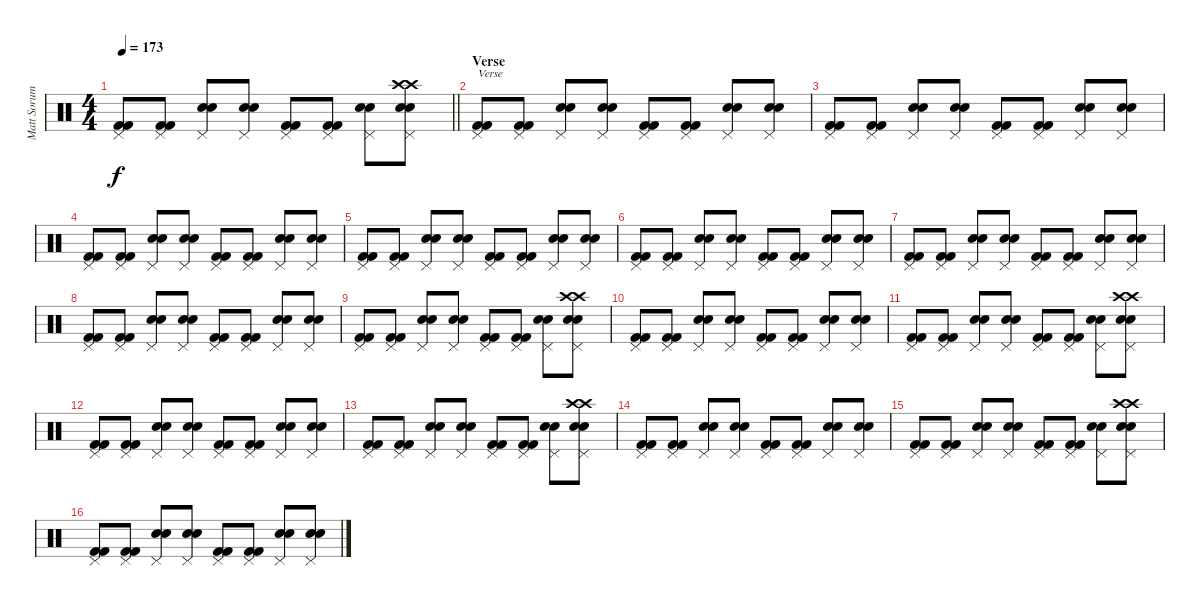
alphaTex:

\track ("Matt Sorum" "Matt Sorum") {instrument percussion}
\staff {score}
\articulation defaults
\ts (4 4)
\tempo 173
\clef neutral
\barLineRight lightlight
\ks c
("Pedal Hi-Hat (hit)" "Kick (hit) 2" "Kick (hit) 2").8{dy f} ("Pedal Hi-Hat (hit)" "Kick (hit) 2" "Kick (hit) 2").8 ("Pedal Hi-Hat (hit)" "Snare (hit) 2" "Snare (hit) 2").8 ("Pedal Hi-Hat (hit)" "Snare (hit) 2" "Snare (hit) 2").8 ("Pedal Hi-Hat (hit)" "Kick (hit) 2" "Kick (hit) 2").8 ("Pedal Hi-Hat (hit)" "Kick (hit) 2" "Kick (hit) 2").8 ("Pedal Hi-Hat (hit)" "Snare (hit) 2" "Snare (hit) 2").8 ("Crash high (hit)" "Crash high (hit)" "Pedal Hi-Hat (hit)" "Snare (hit) 2" "Snare (hit) 2").8 |
\section ("" "Verse")
("Pedal Hi-Hat (hit)" "Kick (hit) 2" "Kick (hit) 2").8{txt "Verse"} ("Pedal Hi-Hat (hit)" "Kick (hit) 2" "Kick (hit) 2").8 ("Pedal Hi-Hat (hit)" "Snare (hit) 2" "Snare (hit) 2").8 ("Pedal Hi-Hat (hit)" "Snare (hit) 2" "Snare (hit) 2").8 ("Pedal Hi-Hat (hit)" "Kick (hit) 2" "Kick (hit) 2").8 ("Pedal Hi-Hat (hit)" "Kick (hit) 2" "Kick (hit) 2").8 ("Pedal Hi-Hat (hit)" "Snare (hit) 2" "Snare (hit) 2").8 ("Pedal Hi-Hat (hit)" "Snare (hit) 2" "Snare (hit) 2").8 |
("Pedal Hi-Hat (hit)" "Kick (hit) 2" "Kick (hit) 2").8 ("Pedal Hi-Hat (hit)" "Kick (hit) 2" "Kick (hit) 2").8 ("Pedal Hi-Hat (hit)" "Snare (hit) 2" "Snare (hit) 2").8 ("Pedal Hi-Hat (hit)" "Snare (hit) 2" "Snare (hit) 2").8 ("Pedal Hi-Hat (hit)" "Kick (hit) 2" "Kick (hit) 2").8 ("Pedal Hi-Hat (hit)" "Kick (hit) 2" "Kick (hit) 2").8 ("Pedal Hi-Hat (hit)" "Snare (hit) 2" "Snare (hit) 2").8 ("Pedal Hi-Hat (hit)" "Snare (hit) 2" "Snare (hit) 2").8 |
("Pedal Hi-Hat (hit)" "Kick (hit) 2" "Kick (hit) 2").8 ("Pedal Hi-Hat (hit)" "Kick (hit) 2" "Kick (hit) 2").8 ("Pedal Hi-Hat (hit)" "Snare (hit) 2" "Snare (hit) 2").8 ("Pedal Hi-Hat (hit)" "Snare (hit) 2" "Snare (hit) 2").8 ("Pedal Hi-Hat (hit)" "Kick (hit) 2" "Kick (hit) 2").8 ("Pedal Hi-Hat (hit)" "Kick (hit) 2" "Kick (hit) 2").8 ("Pedal Hi-Hat (hit)" "Snare (hit) 2" "Snare (hit) 2").8 ("Pedal Hi-Hat (hit)" "Snare (hit) 2" "Snare (hit) 2").8 |
("Pedal Hi-Hat (hit)" "Kick (hit) 2" "Kick (hit) 2").8 ("Pedal Hi-Hat (hit)" "Kick (hit) 2" "Kick (hit) 2").8 ("Pedal Hi-Hat (hit)" "Snare (hit) 2" "Snare (hit) 2").8 ("Pedal Hi-Hat (hit)" "Snare (hit) 2" "Snare (hit) 2").8 ("Pedal Hi-Hat (hit)" "Kick (hit) 2" "Kick (hit) 2").8 ("Pedal Hi-Hat (hit)" "Kick (hit) 2" "Kick (hit) 2").8 ("Pedal Hi-Hat (hit)" "Snare (hit) 2" "Snare (hit) 2").8 ("Pedal Hi-Hat (hit)" "Snare (hit) 2" "Snare (hit) 2").8 |
("Pedal Hi-Hat (hit)" "Kick (hit) 2" "Kick (hit) 2").8 ("Pedal Hi-Hat (hit)" "Kick (hit) 2" "Kick (hit) 2").8 ("Pedal Hi-Hat (hit)" "Snare (hit) 2" "Snare (hit) 2").8 ("Pedal Hi-Hat (hit)" "Snare (hit) 2" "Snare (hit) 2").8 ("Pedal Hi-Hat (hit)" "Kick (hit) 2" "Kick (hit) 2").8 ("Pedal Hi-Hat (hit)" "Kick (hit) 2" "Kick (hit) 2").8 ("Pedal Hi-Hat (hit)" "Snare (hit) 2" "Snare (hit) 2").8 ("Pedal Hi-Hat (hit)" "Snare (hit) 2" "Snare (hit) 2").8 |
("Pedal Hi-Hat (hit)" "Kick (hit) 2" "Kick (hit) 2").8 ("Pedal Hi-Hat (hit)" "Kick (hit) 2" "Kick (hit) 2").8 ("Pedal Hi-Hat (hit)" "Snare (hit) 2" "Snare (hit) 2").8 ("Pedal Hi-Hat (hit)" "Snare (hit) 2" "Snare (hit) 2").8 ("Pedal Hi-Hat (hit)" "Kick (hit) 2" "Kick (hit) 2").8 ("Pedal Hi-Hat (hit)" "Kick (hit) 2" "Kick (hit) 2").8 ("Pedal Hi-Hat (hit)" "Snare (hit) 2" "Snare (hit) 2").8 ("Pedal Hi-Hat (hit)" "Snare (hit) 2" "Snare (hit) 2").8 |
("Pedal Hi-Hat (hit)" "Kick (hit) 2" "Kick (hit) 2").8 ("Pedal Hi-Hat (hit)" "Kick (hit) 2" "Kick (hit) 2").8 ("Pedal Hi-Hat (hit)" "Snare (hit) 2" "Snare (hit) 2").8 ("Pedal Hi-Hat (hit)" "Snare (hit) 2" "Snare (hit) 2").8 ("Pedal Hi-Hat (hit)" "Kick (hit) 2" "Kick (hit) 2").8 ("Pedal Hi-Hat (hit)" "Kick (hit) 2" "Kick (hit) 2").8 ("Pedal Hi-Hat (hit)" "Snare (hit) 2" "Snare (hit) 2").8 ("Pedal Hi-Hat (hit)" "Snare (hit) 2" "Snare (hit) 2").8 |
("Pedal Hi-Hat (hit)" "Kick (hit) 2" "Kick (hit) 2").8 ("Pedal Hi-Hat (hit)" "Kick (hit) 2" "Kick (hit) 2").8 ("Pedal Hi-Hat (hit)" "Snare (hit) 2" "Snare (hit) 2").8 ("Pedal Hi-Hat (hit)" "Snare (hit) 2" "Snare (hit) 2").8 ("Pedal Hi-Hat (hit)" "Kick (hit) 2" "Kick (hit) 2").8 ("Pedal Hi-Hat (hit)" "Kick (hit) 2" "Kick (hit) 2").8 ("Pedal Hi-Hat (hit)" "Snare (hit) 2" "Snare (hit) 2").8 ("Crash high (hit)" "Crash high (hit)" "Pedal Hi-Hat (hit)" "Snare (hit) 2" "Snare (hit) 2").8 |
("Pedal Hi-Hat (hit)" "Kick (hit) 2" "Kick (hit) 2").8 ("Pedal Hi-Hat (hit)" "Kick (hit) 2" "Kick (hit) 2").8 ("Pedal Hi-Hat (hit)" "Snare (hit) 2" "Snare (hit) 2").8 ("Pedal Hi-Hat (hit)" "Snare (hit) 2" "Snare (hit) 2").8 ("Pedal Hi-Hat (hit)" "Kick (hit) 2" "Kick (hit) 2").8 ("Pedal Hi-Hat (hit)" "Kick (hit) 2" "Kick (hit) 2").8 ("Pedal Hi-Hat (hit)" "Snare (hit) 2" "Snare (hit) 2").8 ("Pedal Hi-Hat (hit)" "Snare (hit) 2" "Snare (hit) 2").8 |
("Pedal Hi-Hat (hit)" "Kick (hit) 2" "Kick (hit) 2").8 ("Pedal Hi-Hat (hit)" "Kick (hit) 2" "Kick (hit) 2").8 ("Pedal Hi-Hat (hit)" "Snare (hit) 2" "Snare (hit) 2").8 ("Pedal Hi-Hat (hit)" "Snare (hit) 2" "Snare (hit) 2").8 ("Pedal Hi-Hat (hit)" "Kick (hit) 2" "Kick (hit) 2").8 ("Pedal Hi-Hat (hit)" "Kick (hit) 2" "Kick (hit) 2").8 ("Pedal Hi-Hat (hit)" "Snare (hit) 2" "Snare (hit) 2").8 ("Crash high (hit)" "Crash high (hit)" "Pedal Hi-Hat (hit)" "Snare (hit) 2" "Snare (hit) 2").8 |
("Pedal Hi-Hat (hit)" "Kick (hit) 2" "Kick (hit) 2").8 ("Pedal Hi-Hat (hit)" "Kick (hit) 2" "Kick (hit) 2").8 ("Pedal Hi-Hat (hit)" "Snare (hit) 2" "Snare (hit) 2").8 ("Pedal Hi-Hat (hit)" "Snare (hit) 2" "Snare (hit) 2").8 ("Pedal Hi-Hat (hit)" "Kick (hit) 2" "Kick (hit) 2").8 ("Pedal Hi-Hat (hit)" "Kick (hit) 2" "Kick (hit) 2").8 ("Pedal Hi-Hat (hit)" "Snare (hit) 2" "Snare (hit) 2").8 ("Pedal Hi-Hat (hit)" "Snare (hit) 2" "Snare (hit) 2").8 |
("Pedal Hi-Hat (hit)" "Kick (hit) 2" "Kick (hit) 2").8 ("Pedal Hi-Hat (hit)" "Kick (hit) 2" "Kick (hit) 2").8 ("Pedal Hi-Hat (hit)" "Snare (hit) 2" "Snare (hit) 2").8 ("Pedal Hi-Hat (hit)" "Snare (hit) 2" "Snare (hit) 2").8 ("Pedal Hi-Hat (hit)" "Kick (hit) 2" "Kick (hit) 2").8 ("Pedal Hi-Hat (hit)" "Kick (hit) 2" "Kick (hit) 2").8 ("Pedal Hi-Hat (hit)" "Snare (hit) 2" "Snare (hit) 2").8 ("Crash high (hit)" "Crash high (hit)" "Pedal Hi-Hat (hit)" "Snare (hit) 2" "Snare (hit) 2").8 |
("Pedal Hi-Hat (hit)" "Kick (hit) 2" "Kick (hit) 2").8 ("Pedal Hi-Hat (hit)" "Kick (hit) 2" "Kick (hit) 2").8 ("Pedal Hi-Hat (hit)" "Snare (hit) 2" "Snare (hit) 2").8 ("Pedal Hi-Hat (hit)" "Snare (hit) 2" "Snare (hit) 2").8 ("Pedal Hi-Hat (hit)" "Kick (hit) 2" "Kick (hit) 2").8 ("Pedal Hi-Hat (hit)" "Kick (hit) 2" "Kick (hit) 2").8 ("Pedal Hi-Hat (hit)" "Snare (hit) 2" "Snare (hit) 2").8 ("Pedal Hi-Hat (hit)" "Snare (hit) 2" "Snare (hit) 2").8 |
("Pedal Hi-Hat (hit)" "Kick (hit) 2" "Kick (hit) 2").8 ("Pedal Hi-Hat (hit)" "Kick (hit) 2" "Kick (hit) 2").8 ("Pedal Hi-Hat (hit)" "Snare (hit) 2" "Snare (hit) 2").8 ("Pedal Hi-Hat (hit)" "Snare (hit) 2" "Snare (hit) 2").8 ("Pedal Hi-Hat (hit)" "Kick (hit) 2" "Kick (hit) 2").8 ("Pedal Hi-Hat (hit)" "Kick (hit) 2" "Kick (hit) 2").8 ("Pedal Hi-Hat (hit)" "Snare (hit) 2" "Snare (hit) 2").8 ("Crash high (hit)" "Crash high (hit)" "Pedal Hi-Hat (hit)" "Snare (hit) 2" "Snare (hit) 2").8 |
("Pedal Hi-Hat (hit)" "Kick (hit) 2" "Kick (hit) 2").8 ("Pedal Hi-Hat (hit)" "Kick (hit) 2" "Kick (hit) 2").8 ("Pedal Hi-Hat (hit)" "Snare (hit) 2" "Snare (hit) 2").8 ("Pedal Hi-Hat (hit)" "Snare (hit) 2" "Snare (hit) 2").8 ("Pedal Hi-Hat (hit)" "Kick (hit) 2" "Kick (hit) 2").8 ("Pedal Hi-Hat (hit)" "Kick (hit) 2" "Kick (hit) 2").8 ("Pedal Hi-Hat (hit)" "Snare (hit) 2" "Snare (hit) 2").8 ("Pedal Hi-Hat (hit)" "Snare (hit) 2" "Snare (hit) 2").8
